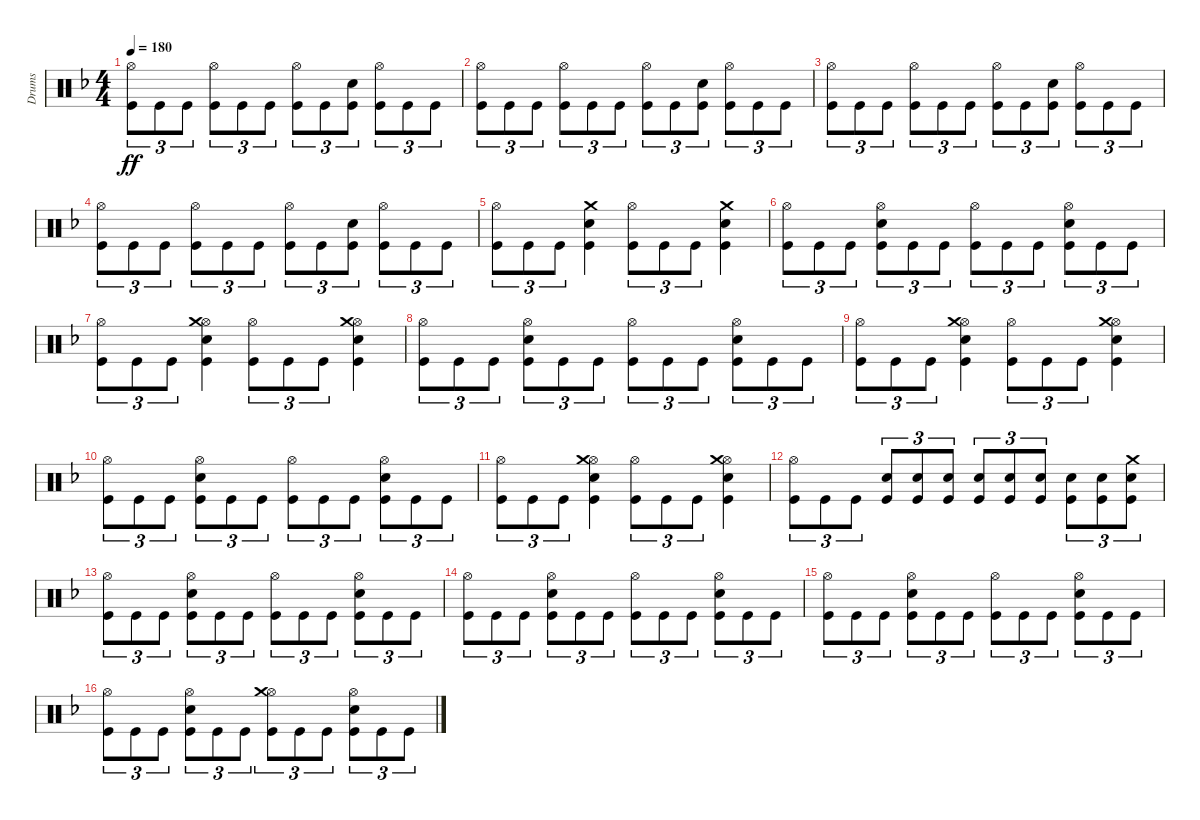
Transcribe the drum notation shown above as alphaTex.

\track ("Drums" "Drums") {instrument percussion}
\staff {score}
\articulation defaults
\ts (4 4)
\tempo 180
\clef neutral
\ks dminor
("Hi-Hat (open)" "Kick (hit)").8{tu (3 2) dy ff} "Kick (hit)".8{tu (3 2)} "Kick (hit)".8{tu (3 2)} ("Hi-Hat (open)" "Kick (hit)").8{tu (3 2)} "Kick (hit)".8{tu (3 2)} "Kick (hit)".8{tu (3 2)} ("Hi-Hat (open)" "Kick (hit)").8{tu (3 2)} "Kick (hit)".8{tu (3 2)} ("Snare (hit) 2" "Kick (hit)").8{tu (3 2)} ("Hi-Hat (open)" "Kick (hit)").8{tu (3 2)} "Kick (hit)".8{tu (3 2)} "Kick (hit)".8{tu (3 2)} |
("Hi-Hat (open)" "Kick (hit)").8{tu (3 2)} "Kick (hit)".8{tu (3 2)} "Kick (hit)".8{tu (3 2)} ("Hi-Hat (open)" "Kick (hit)").8{tu (3 2)} "Kick (hit)".8{tu (3 2)} "Kick (hit)".8{tu (3 2)} ("Hi-Hat (open)" "Kick (hit)").8{tu (3 2)} "Kick (hit)".8{tu (3 2)} ("Snare (hit) 2" "Kick (hit)").8{tu (3 2)} ("Hi-Hat (open)" "Kick (hit)").8{tu (3 2)} "Kick (hit)".8{tu (3 2)} "Kick (hit)".8{tu (3 2)} |
("Hi-Hat (open)" "Kick (hit)").8{tu (3 2)} "Kick (hit)".8{tu (3 2)} "Kick (hit)".8{tu (3 2)} ("Hi-Hat (open)" "Kick (hit)").8{tu (3 2)} "Kick (hit)".8{tu (3 2)} "Kick (hit)".8{tu (3 2)} ("Hi-Hat (open)" "Kick (hit)").8{tu (3 2)} "Kick (hit)".8{tu (3 2)} ("Snare (hit) 2" "Kick (hit)").8{tu (3 2)} ("Hi-Hat (open)" "Kick (hit)").8{tu (3 2)} "Kick (hit)".8{tu (3 2)} "Kick (hit)".8{tu (3 2)} |
("Hi-Hat (open)" "Kick (hit)").8{tu (3 2)} "Kick (hit)".8{tu (3 2)} "Kick (hit)".8{tu (3 2)} ("Hi-Hat (open)" "Kick (hit)").8{tu (3 2)} "Kick (hit)".8{tu (3 2)} "Kick (hit)".8{tu (3 2)} ("Hi-Hat (open)" "Kick (hit)").8{tu (3 2)} "Kick (hit)".8{tu (3 2)} ("Snare (hit) 2" "Kick (hit)").8{tu (3 2)} ("Hi-Hat (open)" "Kick (hit)").8{tu (3 2)} "Kick (hit)".8{tu (3 2)} "Kick (hit)".8{tu (3 2)} |
("Hi-Hat (open)" "Kick (hit)").8{tu (3 2)} "Kick (hit)".8{tu (3 2)} "Kick (hit)".8{tu (3 2)} ("Crash medium (hit)" "Snare (hit) 2" "Kick (hit)").4 ("Hi-Hat (open)" "Kick (hit)").8{tu (3 2)} "Kick (hit)".8{tu (3 2)} "Kick (hit)".8{tu (3 2)} ("Crash medium (hit)" "Snare (hit) 2" "Kick (hit)").4 |
("Hi-Hat (open)" "Kick (hit)").8{tu (3 2)} "Kick (hit)".8{tu (3 2)} "Kick (hit)".8{tu (3 2)} ("Hi-Hat (open)" "Snare (hit) 2" "Kick (hit)").8{tu (3 2)} "Kick (hit)".8{tu (3 2)} "Kick (hit)".8{tu (3 2)} ("Hi-Hat (open)" "Kick (hit)").8{tu (3 2)} "Kick (hit)".8{tu (3 2)} "Kick (hit)".8{tu (3 2)} ("Hi-Hat (open)" "Snare (hit) 2" "Kick (hit)").8{tu (3 2)} "Kick (hit)".8{tu (3 2)} "Kick (hit)".8{tu (3 2)} |
("Hi-Hat (open)" "Kick (hit)").8{tu (3 2)} "Kick (hit)".8{tu (3 2)} "Kick (hit)".8{tu (3 2)} ("Hi-Hat (open)" "Crash medium (hit)" "Snare (hit) 2" "Kick (hit)").4 ("Hi-Hat (open)" "Kick (hit)").8{tu (3 2)} "Kick (hit)".8{tu (3 2)} "Kick (hit)".8{tu (3 2)} ("Hi-Hat (open)" "Crash medium (hit)" "Snare (hit) 2" "Kick (hit)").4 |
("Hi-Hat (open)" "Kick (hit)").8{tu (3 2)} "Kick (hit)".8{tu (3 2)} "Kick (hit)".8{tu (3 2)} ("Hi-Hat (open)" "Snare (hit) 2" "Kick (hit)").8{tu (3 2)} "Kick (hit)".8{tu (3 2)} "Kick (hit)".8{tu (3 2)} ("Hi-Hat (open)" "Kick (hit)").8{tu (3 2)} "Kick (hit)".8{tu (3 2)} "Kick (hit)".8{tu (3 2)} ("Hi-Hat (open)" "Snare (hit) 2" "Kick (hit)").8{tu (3 2)} "Kick (hit)".8{tu (3 2)} "Kick (hit)".8{tu (3 2)} |
("Hi-Hat (open)" "Kick (hit)").8{tu (3 2)} "Kick (hit)".8{tu (3 2)} "Kick (hit)".8{tu (3 2)} ("Hi-Hat (open)" "Crash medium (hit)" "Snare (hit) 2" "Kick (hit)").4 ("Hi-Hat (open)" "Kick (hit)").8{tu (3 2)} "Kick (hit)".8{tu (3 2)} "Kick (hit)".8{tu (3 2)} ("Hi-Hat (open)" "Crash medium (hit)" "Snare (hit) 2" "Kick (hit)").4 |
("Hi-Hat (open)" "Kick (hit)").8{tu (3 2)} "Kick (hit)".8{tu (3 2)} "Kick (hit)".8{tu (3 2)} ("Hi-Hat (open)" "Snare (hit) 2" "Kick (hit)").8{tu (3 2)} "Kick (hit)".8{tu (3 2)} "Kick (hit)".8{tu (3 2)} ("Hi-Hat (open)" "Kick (hit)").8{tu (3 2)} "Kick (hit)".8{tu (3 2)} "Kick (hit)".8{tu (3 2)} ("Hi-Hat (open)" "Snare (hit) 2" "Kick (hit)").8{tu (3 2)} "Kick (hit)".8{tu (3 2)} "Kick (hit)".8{tu (3 2)} |
("Hi-Hat (open)" "Kick (hit)").8{tu (3 2)} "Kick (hit)".8{tu (3 2)} "Kick (hit)".8{tu (3 2)} ("Hi-Hat (open)" "Crash medium (hit)" "Snare (hit) 2" "Kick (hit)").4 ("Hi-Hat (open)" "Kick (hit)").8{tu (3 2)} "Kick (hit)".8{tu (3 2)} "Kick (hit)".8{tu (3 2)} ("Hi-Hat (open)" "Crash medium (hit)" "Snare (hit) 2" "Kick (hit)").4 |
("Hi-Hat (open)" "Kick (hit)").8{tu (3 2)} "Kick (hit)".8{tu (3 2)} "Kick (hit)".8{tu (3 2)} ("Snare (hit) 2" "Kick (hit)").8{tu (3 2)} ("Snare (hit) 2" "Kick (hit)").8{tu (3 2)} ("Snare (hit) 2" "Kick (hit)").8{tu (3 2)} ("Snare (hit) 2" "Kick (hit)").8{tu (3 2)} ("Snare (hit) 2" "Kick (hit)").8{tu (3 2)} ("Snare (hit) 2" "Kick (hit)").8{tu (3 2)} ("Snare (hit) 2" "Kick (hit)").8{tu (3 2)} ("Snare (hit) 2" "Kick (hit)").8{tu (3 2)} ("Crash medium (hit)" "Snare (hit) 2" "Kick (hit)").8{tu (3 2)} |
("Hi-Hat (open)" "Kick (hit)").8{tu (3 2)} "Kick (hit)".8{tu (3 2)} "Kick (hit)".8{tu (3 2)} ("Hi-Hat (open)" "Snare (hit) 2" "Kick (hit)").8{tu (3 2)} "Kick (hit)".8{tu (3 2)} "Kick (hit)".8{tu (3 2)} ("Hi-Hat (open)" "Kick (hit)").8{tu (3 2)} "Kick (hit)".8{tu (3 2)} "Kick (hit)".8{tu (3 2)} ("Hi-Hat (open)" "Snare (hit) 2" "Kick (hit)").8{tu (3 2)} "Kick (hit)".8{tu (3 2)} "Kick (hit)".8{tu (3 2)} |
("Hi-Hat (open)" "Kick (hit)").8{tu (3 2)} "Kick (hit)".8{tu (3 2)} "Kick (hit)".8{tu (3 2)} ("Hi-Hat (open)" "Snare (hit) 2" "Kick (hit)").8{tu (3 2)} "Kick (hit)".8{tu (3 2)} "Kick (hit)".8{tu (3 2)} ("Hi-Hat (open)" "Kick (hit)").8{tu (3 2)} "Kick (hit)".8{tu (3 2)} "Kick (hit)".8{tu (3 2)} ("Hi-Hat (open)" "Snare (hit) 2" "Kick (hit)").8{tu (3 2)} "Kick (hit)".8{tu (3 2)} "Kick (hit)".8{tu (3 2)} |
("Hi-Hat (open)" "Kick (hit)").8{tu (3 2)} "Kick (hit)".8{tu (3 2)} "Kick (hit)".8{tu (3 2)} ("Hi-Hat (open)" "Snare (hit) 2" "Kick (hit)").8{tu (3 2)} "Kick (hit)".8{tu (3 2)} "Kick (hit)".8{tu (3 2)} ("Hi-Hat (open)" "Kick (hit)").8{tu (3 2)} "Kick (hit)".8{tu (3 2)} "Kick (hit)".8{tu (3 2)} ("Hi-Hat (open)" "Snare (hit) 2" "Kick (hit)").8{tu (3 2)} "Kick (hit)".8{tu (3 2)} "Kick (hit)".8{tu (3 2)} |
("Hi-Hat (open)" "Kick (hit)").8{tu (3 2)} "Kick (hit)".8{tu (3 2)} "Kick (hit)".8{tu (3 2)} ("Hi-Hat (open)" "Snare (hit) 2" "Kick (hit)").8{tu (3 2)} "Kick (hit)".8{tu (3 2)} "Kick (hit)".8{tu (3 2)} ("Hi-Hat (open)" "Crash medium (hit)" "Kick (hit)").8{tu (3 2)} "Kick (hit)".8{tu (3 2)} "Kick (hit)".8{tu (3 2)} ("Hi-Hat (open)" "Snare (hit) 2" "Kick (hit)").8{tu (3 2)} "Kick (hit)".8{tu (3 2)} "Kick (hit)".8{tu (3 2)}
